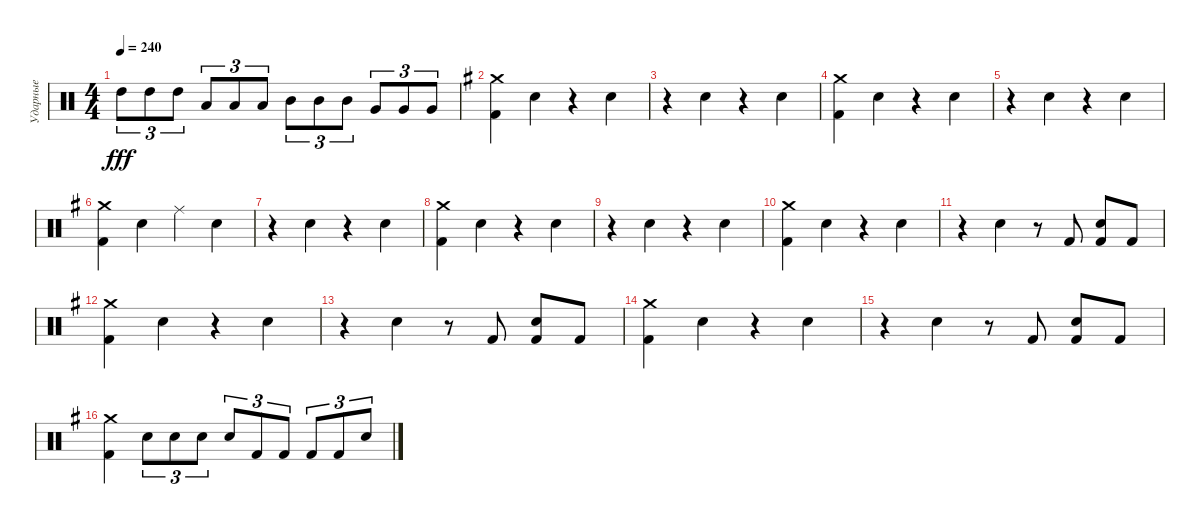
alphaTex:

\track ("Ударные" "Ударные") {instrument percussion}
\staff {score}
\articulation defaults
\ts (4 4)
\tempo 240
\clef neutral
\ks aminor "High Tom (hit)".8{tu (3 2) dy fff} "High Tom (hit)".8{tu (3 2)} "High Tom (hit)".8{tu (3 2)} "Low Tom (hit)".8{tu (3 2)} "Low Tom (hit)".8{tu (3 2)} "Low Tom (hit)".8{tu (3 2)} "Mid Tom (hit)".8{tu (3 2)} "Mid Tom (hit)".8{tu (3 2)} "Mid Tom (hit)".8{tu (3 2)} "Very Low Tom (hit)".8{tu (3 2)} "Very Low Tom (hit)".8{tu (3 2)} "Very Low Tom (hit)".8{tu (3 2)}
|
\ks eminor
("Crash medium (hit)" "Kick (hit) 2").4 "Electric Snare (hit)".4 r.4 "Electric Snare (hit)".4 |
r.4 "Electric Snare (hit)".4 r.4 "Electric Snare (hit)".4 |
("Crash medium (hit)" "Kick (hit) 2").4 "Electric Snare (hit)".4 r.4 "Electric Snare (hit)".4 |
r.4 "Electric Snare (hit)".4 r.4 "Electric Snare (hit)".4 |
("Crash medium (hit)" "Kick (hit) 2").4 "Electric Snare (hit)".4 "Ride (middle)".4 "Electric Snare (hit)".4 |
r.4 "Electric Snare (hit)".4 r.4 "Electric Snare (hit)".4 |
("Crash medium (hit)" "Kick (hit) 2").4 "Electric Snare (hit)".4 r.4 "Electric Snare (hit)".4 |
r.4 "Electric Snare (hit)".4 r.4 "Electric Snare (hit)".4 |
("Crash medium (hit)" "Kick (hit) 2").4 "Electric Snare (hit)".4 r.4 "Electric Snare (hit)".4 |
r.4 "Electric Snare (hit)".4 r.8 "Kick (hit) 2".8 ("Electric Snare (hit)" "Kick (hit) 2").8 "Kick (hit) 2".8 |
("Crash medium (hit)" "Kick (hit) 2").4 "Electric Snare (hit)".4 r.4 "Electric Snare (hit)".4 |
r.4 "Electric Snare (hit)".4 r.8 "Kick (hit) 2".8 ("Electric Snare (hit)" "Kick (hit) 2").8 "Kick (hit) 2".8 |
("Crash medium (hit)" "Kick (hit) 2").4 "Electric Snare (hit)".4 r.4 "Electric Snare (hit)".4 |
r.4 "Electric Snare (hit)".4 r.8 "Kick (hit) 2".8 ("Electric Snare (hit)" "Kick (hit) 2").8 "Kick (hit) 2".8 |
("Crash medium (hit)" "Kick (hit) 2").4 "Electric Snare (hit)".8{tu (3 2)} "Electric Snare (hit)".8{tu (3 2)} "Electric Snare (hit)".8{tu (3 2)} "Electric Snare (hit)".8{tu (3 2)} "Kick (hit) 2".8{tu (3 2)} "Kick (hit) 2".8{tu (3 2)} "Kick (hit) 2".8{tu (3 2)} "Kick (hit) 2".8{tu (3 2)} "Electric Snare (hit)".8{tu (3 2)}
